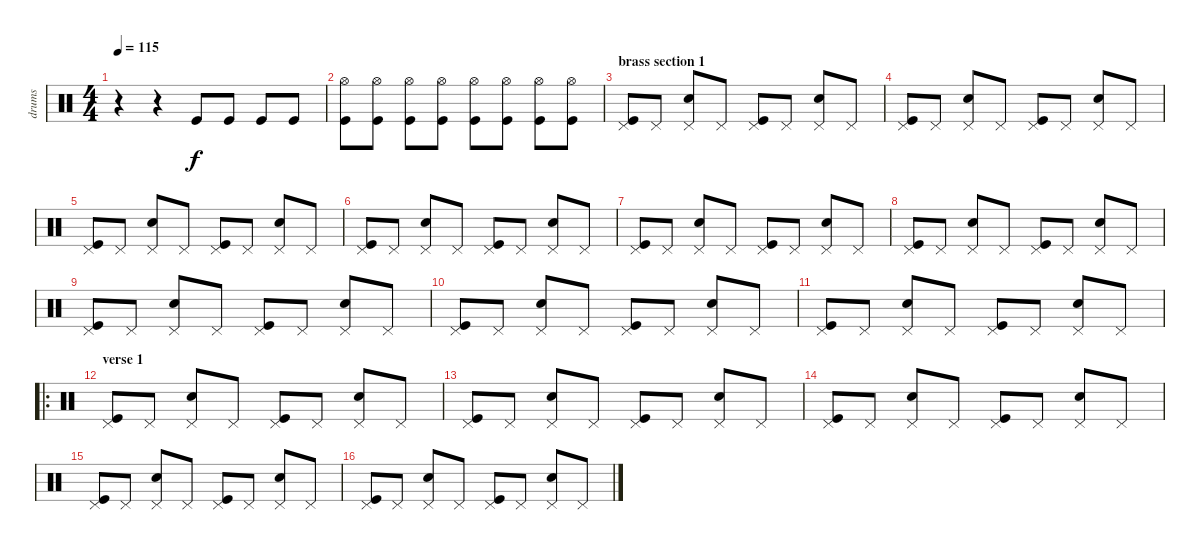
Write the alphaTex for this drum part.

\track ("drums" "drums") {instrument percussion}
\staff {score}
\articulation defaults
\ts (4 4)
\tempo 115
\clef neutral
\ks c
r.4{dy f} r.4 "Kick (hit)".8 "Kick (hit)".8 "Kick (hit)".8 "Kick (hit)".8 |
("Hi-Hat (open)" "Kick (hit)").8 ("Hi-Hat (open)" "Kick (hit)").8 ("Hi-Hat (open)" "Kick (hit)").8 ("Hi-Hat (open)" "Kick (hit)").8 ("Hi-Hat (open)" "Kick (hit)").8 ("Hi-Hat (open)" "Kick (hit)").8 ("Hi-Hat (open)" "Kick (hit)").8 ("Hi-Hat (open)" "Kick (hit)").8 |
\section ("" "brass section 1")
("Pedal Hi-Hat (hit)" "Kick (hit)").8 "Pedal Hi-Hat (hit)".8 ("Pedal Hi-Hat (hit)" "Electric Snare (hit)").8 "Pedal Hi-Hat (hit)".8 ("Pedal Hi-Hat (hit)" "Kick (hit)").8 "Pedal Hi-Hat (hit)".8 ("Pedal Hi-Hat (hit)" "Electric Snare (hit)").8 "Pedal Hi-Hat (hit)".8 |
("Pedal Hi-Hat (hit)" "Kick (hit)").8 "Pedal Hi-Hat (hit)".8 ("Pedal Hi-Hat (hit)" "Electric Snare (hit)").8 "Pedal Hi-Hat (hit)".8 ("Pedal Hi-Hat (hit)" "Kick (hit)").8 "Pedal Hi-Hat (hit)".8 ("Pedal Hi-Hat (hit)" "Electric Snare (hit)").8 "Pedal Hi-Hat (hit)".8 |
("Pedal Hi-Hat (hit)" "Kick (hit)").8 "Pedal Hi-Hat (hit)".8 ("Pedal Hi-Hat (hit)" "Electric Snare (hit)").8 "Pedal Hi-Hat (hit)".8 ("Pedal Hi-Hat (hit)" "Kick (hit)").8 "Pedal Hi-Hat (hit)".8 ("Pedal Hi-Hat (hit)" "Electric Snare (hit)").8 "Pedal Hi-Hat (hit)".8 |
("Pedal Hi-Hat (hit)" "Kick (hit)").8 "Pedal Hi-Hat (hit)".8 ("Pedal Hi-Hat (hit)" "Electric Snare (hit)").8 "Pedal Hi-Hat (hit)".8 ("Pedal Hi-Hat (hit)" "Kick (hit)").8 "Pedal Hi-Hat (hit)".8 ("Pedal Hi-Hat (hit)" "Electric Snare (hit)").8 "Pedal Hi-Hat (hit)".8 |
("Pedal Hi-Hat (hit)" "Kick (hit)").8 "Pedal Hi-Hat (hit)".8 ("Pedal Hi-Hat (hit)" "Electric Snare (hit)").8 "Pedal Hi-Hat (hit)".8 ("Pedal Hi-Hat (hit)" "Kick (hit)").8 "Pedal Hi-Hat (hit)".8 ("Pedal Hi-Hat (hit)" "Electric Snare (hit)").8 "Pedal Hi-Hat (hit)".8 |
("Pedal Hi-Hat (hit)" "Kick (hit)").8 "Pedal Hi-Hat (hit)".8 ("Pedal Hi-Hat (hit)" "Electric Snare (hit)").8 "Pedal Hi-Hat (hit)".8 ("Pedal Hi-Hat (hit)" "Kick (hit)").8 "Pedal Hi-Hat (hit)".8 ("Pedal Hi-Hat (hit)" "Electric Snare (hit)").8 "Pedal Hi-Hat (hit)".8 |
("Pedal Hi-Hat (hit)" "Kick (hit)").8 "Pedal Hi-Hat (hit)".8 ("Pedal Hi-Hat (hit)" "Electric Snare (hit)").8 "Pedal Hi-Hat (hit)".8 ("Pedal Hi-Hat (hit)" "Kick (hit)").8 "Pedal Hi-Hat (hit)".8 ("Pedal Hi-Hat (hit)" "Electric Snare (hit)").8 "Pedal Hi-Hat (hit)".8 |
("Pedal Hi-Hat (hit)" "Kick (hit)").8 "Pedal Hi-Hat (hit)".8 ("Pedal Hi-Hat (hit)" "Electric Snare (hit)").8 "Pedal Hi-Hat (hit)".8 ("Pedal Hi-Hat (hit)" "Kick (hit)").8 "Pedal Hi-Hat (hit)".8 ("Pedal Hi-Hat (hit)" "Electric Snare (hit)").8 "Pedal Hi-Hat (hit)".8 |
("Pedal Hi-Hat (hit)" "Kick (hit)").8 "Pedal Hi-Hat (hit)".8 ("Pedal Hi-Hat (hit)" "Electric Snare (hit)").8 "Pedal Hi-Hat (hit)".8 ("Pedal Hi-Hat (hit)" "Kick (hit)").8 "Pedal Hi-Hat (hit)".8 ("Pedal Hi-Hat (hit)" "Electric Snare (hit)").8 "Pedal Hi-Hat (hit)".8 |
\ro
\section ("" "verse 1")
("Pedal Hi-Hat (hit)" "Kick (hit)").8 "Pedal Hi-Hat (hit)".8 ("Pedal Hi-Hat (hit)" "Electric Snare (hit)").8 "Pedal Hi-Hat (hit)".8 ("Pedal Hi-Hat (hit)" "Kick (hit)").8 "Pedal Hi-Hat (hit)".8 ("Pedal Hi-Hat (hit)" "Electric Snare (hit)").8 "Pedal Hi-Hat (hit)".8 |
("Pedal Hi-Hat (hit)" "Kick (hit)").8 "Pedal Hi-Hat (hit)".8 ("Pedal Hi-Hat (hit)" "Electric Snare (hit)").8 "Pedal Hi-Hat (hit)".8 ("Pedal Hi-Hat (hit)" "Kick (hit)").8 "Pedal Hi-Hat (hit)".8 ("Pedal Hi-Hat (hit)" "Electric Snare (hit)").8 "Pedal Hi-Hat (hit)".8 |
("Pedal Hi-Hat (hit)" "Kick (hit)").8 "Pedal Hi-Hat (hit)".8 ("Pedal Hi-Hat (hit)" "Electric Snare (hit)").8 "Pedal Hi-Hat (hit)".8 ("Pedal Hi-Hat (hit)" "Kick (hit)").8 "Pedal Hi-Hat (hit)".8 ("Pedal Hi-Hat (hit)" "Electric Snare (hit)").8 "Pedal Hi-Hat (hit)".8 |
("Pedal Hi-Hat (hit)" "Kick (hit)").8 "Pedal Hi-Hat (hit)".8 ("Pedal Hi-Hat (hit)" "Electric Snare (hit)").8 "Pedal Hi-Hat (hit)".8 ("Pedal Hi-Hat (hit)" "Kick (hit)").8 "Pedal Hi-Hat (hit)".8 ("Pedal Hi-Hat (hit)" "Electric Snare (hit)").8 "Pedal Hi-Hat (hit)".8 |
("Pedal Hi-Hat (hit)" "Kick (hit)").8 "Pedal Hi-Hat (hit)".8 ("Pedal Hi-Hat (hit)" "Electric Snare (hit)").8 "Pedal Hi-Hat (hit)".8 ("Pedal Hi-Hat (hit)" "Kick (hit)").8 "Pedal Hi-Hat (hit)".8 ("Pedal Hi-Hat (hit)" "Electric Snare (hit)").8 "Pedal Hi-Hat (hit)".8
